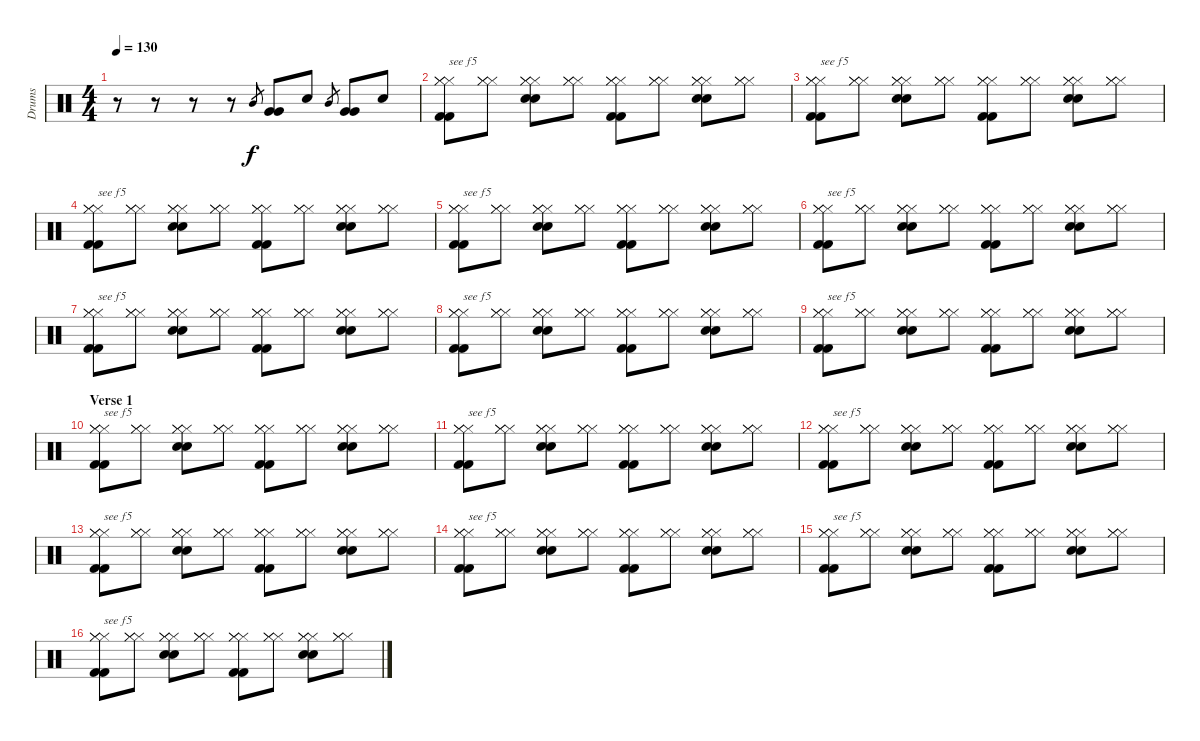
\track ("Drums" "Drums") {instrument percussion}
\staff {score}
\articulation defaults
\ts (4 4)
\tempo 130
\clef neutral
\ks c
r.8{dy f} r.8 r.8 r.8 "Mid Tom (hit)".8{gr} ("Very Low Tom (hit)" "Very Low Tom (hit)").8 "Electric Snare (hit)".8 "Mid Tom (hit)".8{gr} ("Very Low Tom (hit)" "Very Low Tom (hit)").8 "Electric Snare (hit)".8 |
("Hi-Hat (closed)" "Hi-Hat (closed)" "Hi-Hat (closed)" "Kick (hit) 2" "Kick (hit) 2").8{txt "see f5"} ("Hi-Hat (closed)" "Hi-Hat (closed)" "Hi-Hat (closed)").8 ("Hi-Hat (closed)" "Hi-Hat (closed)" "Hi-Hat (closed)" "Electric Snare (hit)" "Electric Snare (hit)").8 ("Hi-Hat (closed)" "Hi-Hat (closed)" "Hi-Hat (closed)").8 ("Hi-Hat (closed)" "Hi-Hat (closed)" "Hi-Hat (closed)" "Kick (hit) 2" "Kick (hit) 2").8 ("Hi-Hat (closed)" "Hi-Hat (closed)" "Hi-Hat (closed)").8 ("Hi-Hat (closed)" "Hi-Hat (closed)" "Hi-Hat (closed)" "Electric Snare (hit)" "Electric Snare (hit)").8 ("Hi-Hat (closed)" "Hi-Hat (closed)" "Hi-Hat (closed)").8 |
("Hi-Hat (closed)" "Hi-Hat (closed)" "Hi-Hat (closed)" "Kick (hit) 2" "Kick (hit) 2").8{txt "see f5"} ("Hi-Hat (closed)" "Hi-Hat (closed)" "Hi-Hat (closed)").8 ("Hi-Hat (closed)" "Hi-Hat (closed)" "Hi-Hat (closed)" "Electric Snare (hit)" "Electric Snare (hit)").8 ("Hi-Hat (closed)" "Hi-Hat (closed)" "Hi-Hat (closed)").8 ("Hi-Hat (closed)" "Hi-Hat (closed)" "Hi-Hat (closed)" "Kick (hit) 2" "Kick (hit) 2").8 ("Hi-Hat (closed)" "Hi-Hat (closed)" "Hi-Hat (closed)").8 ("Hi-Hat (closed)" "Hi-Hat (closed)" "Hi-Hat (closed)" "Electric Snare (hit)" "Electric Snare (hit)").8 ("Hi-Hat (closed)" "Hi-Hat (closed)" "Hi-Hat (closed)").8 |
("Hi-Hat (closed)" "Hi-Hat (closed)" "Hi-Hat (closed)" "Kick (hit) 2" "Kick (hit) 2").8{txt "see f5"} ("Hi-Hat (closed)" "Hi-Hat (closed)" "Hi-Hat (closed)").8 ("Hi-Hat (closed)" "Hi-Hat (closed)" "Hi-Hat (closed)" "Electric Snare (hit)" "Electric Snare (hit)").8 ("Hi-Hat (closed)" "Hi-Hat (closed)" "Hi-Hat (closed)").8 ("Hi-Hat (closed)" "Hi-Hat (closed)" "Hi-Hat (closed)" "Kick (hit) 2" "Kick (hit) 2").8 ("Hi-Hat (closed)" "Hi-Hat (closed)" "Hi-Hat (closed)").8 ("Hi-Hat (closed)" "Hi-Hat (closed)" "Hi-Hat (closed)" "Electric Snare (hit)" "Electric Snare (hit)").8 ("Hi-Hat (closed)" "Hi-Hat (closed)" "Hi-Hat (closed)").8 |
("Hi-Hat (closed)" "Hi-Hat (closed)" "Hi-Hat (closed)" "Kick (hit) 2" "Kick (hit) 2").8{txt "see f5"} ("Hi-Hat (closed)" "Hi-Hat (closed)" "Hi-Hat (closed)").8 ("Hi-Hat (closed)" "Hi-Hat (closed)" "Hi-Hat (closed)" "Electric Snare (hit)" "Electric Snare (hit)").8 ("Hi-Hat (closed)" "Hi-Hat (closed)" "Hi-Hat (closed)").8 ("Hi-Hat (closed)" "Hi-Hat (closed)" "Hi-Hat (closed)" "Kick (hit) 2" "Kick (hit) 2").8 ("Hi-Hat (closed)" "Hi-Hat (closed)" "Hi-Hat (closed)").8 ("Hi-Hat (closed)" "Hi-Hat (closed)" "Hi-Hat (closed)" "Electric Snare (hit)" "Electric Snare (hit)").8 ("Hi-Hat (closed)" "Hi-Hat (closed)" "Hi-Hat (closed)").8 |
("Hi-Hat (closed)" "Hi-Hat (closed)" "Hi-Hat (closed)" "Kick (hit) 2" "Kick (hit) 2").8{txt "see f5"} ("Hi-Hat (closed)" "Hi-Hat (closed)" "Hi-Hat (closed)").8 ("Hi-Hat (closed)" "Hi-Hat (closed)" "Hi-Hat (closed)" "Electric Snare (hit)" "Electric Snare (hit)").8 ("Hi-Hat (closed)" "Hi-Hat (closed)" "Hi-Hat (closed)").8 ("Hi-Hat (closed)" "Hi-Hat (closed)" "Hi-Hat (closed)" "Kick (hit) 2" "Kick (hit) 2").8 ("Hi-Hat (closed)" "Hi-Hat (closed)" "Hi-Hat (closed)").8 ("Hi-Hat (closed)" "Hi-Hat (closed)" "Hi-Hat (closed)" "Electric Snare (hit)" "Electric Snare (hit)").8 ("Hi-Hat (closed)" "Hi-Hat (closed)" "Hi-Hat (closed)").8 |
("Hi-Hat (closed)" "Hi-Hat (closed)" "Hi-Hat (closed)" "Kick (hit) 2" "Kick (hit) 2").8{txt "see f5"} ("Hi-Hat (closed)" "Hi-Hat (closed)" "Hi-Hat (closed)").8 ("Hi-Hat (closed)" "Hi-Hat (closed)" "Hi-Hat (closed)" "Electric Snare (hit)" "Electric Snare (hit)").8 ("Hi-Hat (closed)" "Hi-Hat (closed)" "Hi-Hat (closed)").8 ("Hi-Hat (closed)" "Hi-Hat (closed)" "Hi-Hat (closed)" "Kick (hit) 2" "Kick (hit) 2").8 ("Hi-Hat (closed)" "Hi-Hat (closed)" "Hi-Hat (closed)").8 ("Hi-Hat (closed)" "Hi-Hat (closed)" "Hi-Hat (closed)" "Electric Snare (hit)" "Electric Snare (hit)").8 ("Hi-Hat (closed)" "Hi-Hat (closed)" "Hi-Hat (closed)").8 |
("Hi-Hat (closed)" "Hi-Hat (closed)" "Hi-Hat (closed)" "Kick (hit) 2" "Kick (hit) 2").8{txt "see f5"} ("Hi-Hat (closed)" "Hi-Hat (closed)" "Hi-Hat (closed)").8 ("Hi-Hat (closed)" "Hi-Hat (closed)" "Hi-Hat (closed)" "Electric Snare (hit)" "Electric Snare (hit)").8 ("Hi-Hat (closed)" "Hi-Hat (closed)" "Hi-Hat (closed)").8 ("Hi-Hat (closed)" "Hi-Hat (closed)" "Hi-Hat (closed)" "Kick (hit) 2" "Kick (hit) 2").8 ("Hi-Hat (closed)" "Hi-Hat (closed)" "Hi-Hat (closed)").8 ("Hi-Hat (closed)" "Hi-Hat (closed)" "Hi-Hat (closed)" "Electric Snare (hit)" "Electric Snare (hit)").8 ("Hi-Hat (closed)" "Hi-Hat (closed)" "Hi-Hat (closed)").8 |
("Hi-Hat (closed)" "Hi-Hat (closed)" "Hi-Hat (closed)" "Kick (hit) 2" "Kick (hit) 2").8{txt "see f5"} ("Hi-Hat (closed)" "Hi-Hat (closed)" "Hi-Hat (closed)").8 ("Hi-Hat (closed)" "Hi-Hat (closed)" "Hi-Hat (closed)" "Electric Snare (hit)" "Electric Snare (hit)").8 ("Hi-Hat (closed)" "Hi-Hat (closed)" "Hi-Hat (closed)").8 ("Hi-Hat (closed)" "Hi-Hat (closed)" "Hi-Hat (closed)" "Kick (hit) 2" "Kick (hit) 2").8 ("Hi-Hat (closed)" "Hi-Hat (closed)" "Hi-Hat (closed)").8 ("Hi-Hat (closed)" "Hi-Hat (closed)" "Hi-Hat (closed)" "Electric Snare (hit)" "Electric Snare (hit)").8 ("Hi-Hat (closed)" "Hi-Hat (closed)" "Hi-Hat (closed)").8 |
\section ("" "Verse 1")
("Hi-Hat (closed)" "Hi-Hat (closed)" "Hi-Hat (closed)" "Kick (hit) 2" "Kick (hit) 2").8{txt "see f5"} ("Hi-Hat (closed)" "Hi-Hat (closed)" "Hi-Hat (closed)").8 ("Hi-Hat (closed)" "Hi-Hat (closed)" "Hi-Hat (closed)" "Electric Snare (hit)" "Electric Snare (hit)").8 ("Hi-Hat (closed)" "Hi-Hat (closed)" "Hi-Hat (closed)").8 ("Hi-Hat (closed)" "Hi-Hat (closed)" "Hi-Hat (closed)" "Kick (hit) 2" "Kick (hit) 2").8 ("Hi-Hat (closed)" "Hi-Hat (closed)" "Hi-Hat (closed)").8 ("Hi-Hat (closed)" "Hi-Hat (closed)" "Hi-Hat (closed)" "Electric Snare (hit)" "Electric Snare (hit)").8 ("Hi-Hat (closed)" "Hi-Hat (closed)" "Hi-Hat (closed)").8 |
("Hi-Hat (closed)" "Hi-Hat (closed)" "Hi-Hat (closed)" "Kick (hit) 2" "Kick (hit) 2").8{txt "see f5"} ("Hi-Hat (closed)" "Hi-Hat (closed)" "Hi-Hat (closed)").8 ("Hi-Hat (closed)" "Hi-Hat (closed)" "Hi-Hat (closed)" "Electric Snare (hit)" "Electric Snare (hit)").8 ("Hi-Hat (closed)" "Hi-Hat (closed)" "Hi-Hat (closed)").8 ("Hi-Hat (closed)" "Hi-Hat (closed)" "Hi-Hat (closed)" "Kick (hit) 2" "Kick (hit) 2").8 ("Hi-Hat (closed)" "Hi-Hat (closed)" "Hi-Hat (closed)").8 ("Hi-Hat (closed)" "Hi-Hat (closed)" "Hi-Hat (closed)" "Electric Snare (hit)" "Electric Snare (hit)").8 ("Hi-Hat (closed)" "Hi-Hat (closed)" "Hi-Hat (closed)").8 |
("Hi-Hat (closed)" "Hi-Hat (closed)" "Hi-Hat (closed)" "Kick (hit) 2" "Kick (hit) 2").8{txt "see f5"} ("Hi-Hat (closed)" "Hi-Hat (closed)" "Hi-Hat (closed)").8 ("Hi-Hat (closed)" "Hi-Hat (closed)" "Hi-Hat (closed)" "Electric Snare (hit)" "Electric Snare (hit)").8 ("Hi-Hat (closed)" "Hi-Hat (closed)" "Hi-Hat (closed)").8 ("Hi-Hat (closed)" "Hi-Hat (closed)" "Hi-Hat (closed)" "Kick (hit) 2" "Kick (hit) 2").8 ("Hi-Hat (closed)" "Hi-Hat (closed)" "Hi-Hat (closed)").8 ("Hi-Hat (closed)" "Hi-Hat (closed)" "Hi-Hat (closed)" "Electric Snare (hit)" "Electric Snare (hit)").8 ("Hi-Hat (closed)" "Hi-Hat (closed)" "Hi-Hat (closed)").8 |
("Hi-Hat (closed)" "Hi-Hat (closed)" "Hi-Hat (closed)" "Kick (hit) 2" "Kick (hit) 2").8{txt "see f5"} ("Hi-Hat (closed)" "Hi-Hat (closed)" "Hi-Hat (closed)").8 ("Hi-Hat (closed)" "Hi-Hat (closed)" "Hi-Hat (closed)" "Electric Snare (hit)" "Electric Snare (hit)").8 ("Hi-Hat (closed)" "Hi-Hat (closed)" "Hi-Hat (closed)").8 ("Hi-Hat (closed)" "Hi-Hat (closed)" "Hi-Hat (closed)" "Kick (hit) 2" "Kick (hit) 2").8 ("Hi-Hat (closed)" "Hi-Hat (closed)" "Hi-Hat (closed)").8 ("Hi-Hat (closed)" "Hi-Hat (closed)" "Hi-Hat (closed)" "Electric Snare (hit)" "Electric Snare (hit)").8 ("Hi-Hat (closed)" "Hi-Hat (closed)" "Hi-Hat (closed)").8 |
("Hi-Hat (closed)" "Hi-Hat (closed)" "Hi-Hat (closed)" "Kick (hit) 2" "Kick (hit) 2").8{txt "see f5"} ("Hi-Hat (closed)" "Hi-Hat (closed)" "Hi-Hat (closed)").8 ("Hi-Hat (closed)" "Hi-Hat (closed)" "Hi-Hat (closed)" "Electric Snare (hit)" "Electric Snare (hit)").8 ("Hi-Hat (closed)" "Hi-Hat (closed)" "Hi-Hat (closed)").8 ("Hi-Hat (closed)" "Hi-Hat (closed)" "Hi-Hat (closed)" "Kick (hit) 2" "Kick (hit) 2").8 ("Hi-Hat (closed)" "Hi-Hat (closed)" "Hi-Hat (closed)").8 ("Hi-Hat (closed)" "Hi-Hat (closed)" "Hi-Hat (closed)" "Electric Snare (hit)" "Electric Snare (hit)").8 ("Hi-Hat (closed)" "Hi-Hat (closed)" "Hi-Hat (closed)").8 |
("Hi-Hat (closed)" "Hi-Hat (closed)" "Hi-Hat (closed)" "Kick (hit) 2" "Kick (hit) 2").8{txt "see f5"} ("Hi-Hat (closed)" "Hi-Hat (closed)" "Hi-Hat (closed)").8 ("Hi-Hat (closed)" "Hi-Hat (closed)" "Hi-Hat (closed)" "Electric Snare (hit)" "Electric Snare (hit)").8 ("Hi-Hat (closed)" "Hi-Hat (closed)" "Hi-Hat (closed)").8 ("Hi-Hat (closed)" "Hi-Hat (closed)" "Hi-Hat (closed)" "Kick (hit) 2" "Kick (hit) 2").8 ("Hi-Hat (closed)" "Hi-Hat (closed)" "Hi-Hat (closed)").8 ("Hi-Hat (closed)" "Hi-Hat (closed)" "Hi-Hat (closed)" "Electric Snare (hit)" "Electric Snare (hit)").8 ("Hi-Hat (closed)" "Hi-Hat (closed)" "Hi-Hat (closed)").8 |
("Hi-Hat (closed)" "Hi-Hat (closed)" "Hi-Hat (closed)" "Kick (hit) 2" "Kick (hit) 2").8{txt "see f5"} ("Hi-Hat (closed)" "Hi-Hat (closed)" "Hi-Hat (closed)").8 ("Hi-Hat (closed)" "Hi-Hat (closed)" "Hi-Hat (closed)" "Electric Snare (hit)" "Electric Snare (hit)").8 ("Hi-Hat (closed)" "Hi-Hat (closed)" "Hi-Hat (closed)").8 ("Hi-Hat (closed)" "Hi-Hat (closed)" "Hi-Hat (closed)" "Kick (hit) 2" "Kick (hit) 2").8 ("Hi-Hat (closed)" "Hi-Hat (closed)" "Hi-Hat (closed)").8 ("Hi-Hat (closed)" "Hi-Hat (closed)" "Hi-Hat (closed)" "Electric Snare (hit)" "Electric Snare (hit)").8 ("Hi-Hat (closed)" "Hi-Hat (closed)" "Hi-Hat (closed)").8
